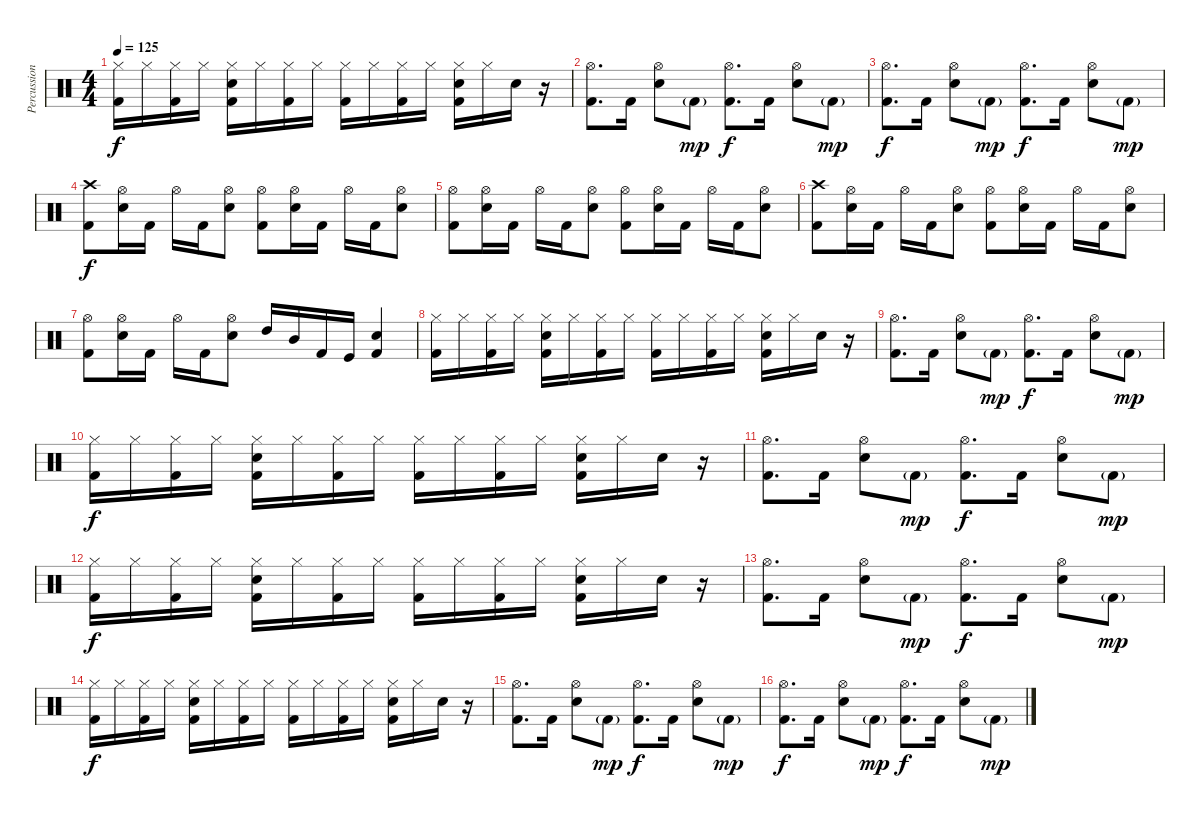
\track ("Percussion" "Percussion") {instrument percussion}
\staff {score}
\articulation defaults
\ts (4 4)
\tempo 125
\clef neutral
\ks c
("Hi-Hat (closed)" "Kick (hit) 2").16{dy f} "Hi-Hat (closed)".16 ("Hi-Hat (closed)" "Kick (hit) 2").16 "Hi-Hat (closed)".16 ("Hi-Hat (closed)" "Electric Snare (hit)" "Kick (hit) 2").16 "Hi-Hat (closed)".16 ("Hi-Hat (closed)" "Kick (hit) 2").16 "Hi-Hat (closed)".16 ("Hi-Hat (closed)" "Kick (hit) 2").16 "Hi-Hat (closed)".16 ("Hi-Hat (closed)" "Kick (hit) 2").16 "Hi-Hat (closed)".16 ("Hi-Hat (closed)" "Electric Snare (hit)" "Kick (hit) 2").16 "Hi-Hat (closed)".16 "Electric Snare (hit)".16 r.16 |
("Hi-Hat (open)" "Kick (hit) 2").8{d} "Kick (hit) 2".16 ("Hi-Hat (open)" "Electric Snare (hit)").8 "Kick (hit) 2"{g}.8{dy mp} ("Hi-Hat (open)" "Kick (hit) 2").8{d dy f} "Kick (hit) 2".16 ("Hi-Hat (open)" "Electric Snare (hit)").8 "Kick (hit) 2"{g}.8{dy mp} |
("Hi-Hat (open)" "Kick (hit) 2").8{d dy f} "Kick (hit) 2".16 ("Hi-Hat (open)" "Electric Snare (hit)").8 "Kick (hit) 2"{g}.8{dy mp} ("Hi-Hat (open)" "Kick (hit) 2").8{d dy f} "Kick (hit) 2".16 ("Hi-Hat (open)" "Electric Snare (hit)").8 "Kick (hit) 2"{g}.8{dy mp} |
("Crash high (hit)" "Kick (hit) 2").8{dy f} ("Hi-Hat (open)" "Electric Snare (hit)").16 "Kick (hit) 2".16 "Hi-Hat (open)".16 "Kick (hit) 2".16 ("Hi-Hat (open)" "Electric Snare (hit)").8 ("Hi-Hat (open)" "Kick (hit) 2").8 ("Hi-Hat (open)" "Electric Snare (hit)").16 "Kick (hit) 2".16 "Hi-Hat (open)".16 "Kick (hit) 2".16 ("Hi-Hat (open)" "Electric Snare (hit)").8 |
("Hi-Hat (open)" "Kick (hit) 2").8 ("Hi-Hat (open)" "Electric Snare (hit)").16 "Kick (hit) 2".16 "Hi-Hat (open)".16 "Kick (hit) 2".16 ("Hi-Hat (open)" "Electric Snare (hit)").8 ("Hi-Hat (open)" "Kick (hit) 2").8 ("Hi-Hat (open)" "Electric Snare (hit)").16 "Kick (hit) 2".16 "Hi-Hat (open)".16 "Kick (hit) 2".16 ("Hi-Hat (open)" "Electric Snare (hit)").8 |
("Crash high (hit)" "Kick (hit) 2").8 ("Hi-Hat (open)" "Electric Snare (hit)").16 "Kick (hit) 2".16 "Hi-Hat (open)".16 "Kick (hit) 2".16 ("Hi-Hat (open)" "Electric Snare (hit)").8 ("Hi-Hat (open)" "Kick (hit) 2").8 ("Hi-Hat (open)" "Electric Snare (hit)").16 "Kick (hit) 2".16 "Hi-Hat (open)".16 "Kick (hit) 2".16 ("Hi-Hat (open)" "Electric Snare (hit)").8 |
("Hi-Hat (open)" "Kick (hit) 2").8 ("Hi-Hat (open)" "Electric Snare (hit)").16 "Kick (hit) 2".16 "Hi-Hat (open)".16 "Kick (hit) 2".16 ("Hi-Hat (open)" "Electric Snare (hit)").8 "High Tom (hit)".16 "Mid Tom (hit)".16 "Kick (hit) 2".16 "Kick (hit)".16 ("Electric Snare (hit)" "Kick (hit) 2").4 |
("Hi-Hat (closed)" "Kick (hit) 2").16 "Hi-Hat (closed)".16 ("Hi-Hat (closed)" "Kick (hit) 2").16 "Hi-Hat (closed)".16 ("Hi-Hat (closed)" "Electric Snare (hit)" "Kick (hit) 2").16 "Hi-Hat (closed)".16 ("Hi-Hat (closed)" "Kick (hit) 2").16 "Hi-Hat (closed)".16 ("Hi-Hat (closed)" "Kick (hit) 2").16 "Hi-Hat (closed)".16 ("Hi-Hat (closed)" "Kick (hit) 2").16 "Hi-Hat (closed)".16 ("Hi-Hat (closed)" "Electric Snare (hit)" "Kick (hit) 2").16 "Hi-Hat (closed)".16 "Electric Snare (hit)".16 r.16 |
("Hi-Hat (open)" "Kick (hit) 2").8{d} "Kick (hit) 2".16 ("Hi-Hat (open)" "Electric Snare (hit)").8 "Kick (hit) 2"{g}.8{dy mp} ("Hi-Hat (open)" "Kick (hit) 2").8{d dy f} "Kick (hit) 2".16 ("Hi-Hat (open)" "Electric Snare (hit)").8 "Kick (hit) 2"{g}.8{dy mp} |
("Hi-Hat (closed)" "Kick (hit) 2").16{dy f} "Hi-Hat (closed)".16 ("Hi-Hat (closed)" "Kick (hit) 2").16 "Hi-Hat (closed)".16 ("Hi-Hat (closed)" "Electric Snare (hit)" "Kick (hit) 2").16 "Hi-Hat (closed)".16 ("Hi-Hat (closed)" "Kick (hit) 2").16 "Hi-Hat (closed)".16 ("Hi-Hat (closed)" "Kick (hit) 2").16 "Hi-Hat (closed)".16 ("Hi-Hat (closed)" "Kick (hit) 2").16 "Hi-Hat (closed)".16 ("Hi-Hat (closed)" "Electric Snare (hit)" "Kick (hit) 2").16 "Hi-Hat (closed)".16 "Electric Snare (hit)".16 r.16 |
("Hi-Hat (open)" "Kick (hit) 2").8{d} "Kick (hit) 2".16 ("Hi-Hat (open)" "Electric Snare (hit)").8 "Kick (hit) 2"{g}.8{dy mp} ("Hi-Hat (open)" "Kick (hit) 2").8{d dy f} "Kick (hit) 2".16 ("Hi-Hat (open)" "Electric Snare (hit)").8 "Kick (hit) 2"{g}.8{dy mp} |
("Hi-Hat (closed)" "Kick (hit) 2").16{dy f} "Hi-Hat (closed)".16 ("Hi-Hat (closed)" "Kick (hit) 2").16 "Hi-Hat (closed)".16 ("Hi-Hat (closed)" "Electric Snare (hit)" "Kick (hit) 2").16 "Hi-Hat (closed)".16 ("Hi-Hat (closed)" "Kick (hit) 2").16 "Hi-Hat (closed)".16 ("Hi-Hat (closed)" "Kick (hit) 2").16 "Hi-Hat (closed)".16 ("Hi-Hat (closed)" "Kick (hit) 2").16 "Hi-Hat (closed)".16 ("Hi-Hat (closed)" "Electric Snare (hit)" "Kick (hit) 2").16 "Hi-Hat (closed)".16 "Electric Snare (hit)".16 r.16 |
("Hi-Hat (open)" "Kick (hit) 2").8{d} "Kick (hit) 2".16 ("Hi-Hat (open)" "Electric Snare (hit)").8 "Kick (hit) 2"{g}.8{dy mp} ("Hi-Hat (open)" "Kick (hit) 2").8{d dy f} "Kick (hit) 2".16 ("Hi-Hat (open)" "Electric Snare (hit)").8 "Kick (hit) 2"{g}.8{dy mp} |
("Hi-Hat (closed)" "Kick (hit) 2").16{dy f} "Hi-Hat (closed)".16 ("Hi-Hat (closed)" "Kick (hit) 2").16 "Hi-Hat (closed)".16 ("Hi-Hat (closed)" "Electric Snare (hit)" "Kick (hit) 2").16 "Hi-Hat (closed)".16 ("Hi-Hat (closed)" "Kick (hit) 2").16 "Hi-Hat (closed)".16 ("Hi-Hat (closed)" "Kick (hit) 2").16 "Hi-Hat (closed)".16 ("Hi-Hat (closed)" "Kick (hit) 2").16 "Hi-Hat (closed)".16 ("Hi-Hat (closed)" "Electric Snare (hit)" "Kick (hit) 2").16 "Hi-Hat (closed)".16 "Electric Snare (hit)".16 r.16 |
("Hi-Hat (open)" "Kick (hit) 2").8{d} "Kick (hit) 2".16 ("Hi-Hat (open)" "Electric Snare (hit)").8 "Kick (hit) 2"{g}.8{dy mp} ("Hi-Hat (open)" "Kick (hit) 2").8{d dy f} "Kick (hit) 2".16 ("Hi-Hat (open)" "Electric Snare (hit)").8 "Kick (hit) 2"{g}.8{dy mp} |
("Hi-Hat (open)" "Kick (hit) 2").8{d dy f} "Kick (hit) 2".16 ("Hi-Hat (open)" "Electric Snare (hit)").8 "Kick (hit) 2"{g}.8{dy mp} ("Hi-Hat (open)" "Kick (hit) 2").8{d dy f} "Kick (hit) 2".16 ("Hi-Hat (open)" "Electric Snare (hit)").8 "Kick (hit) 2"{g}.8{dy mp}
